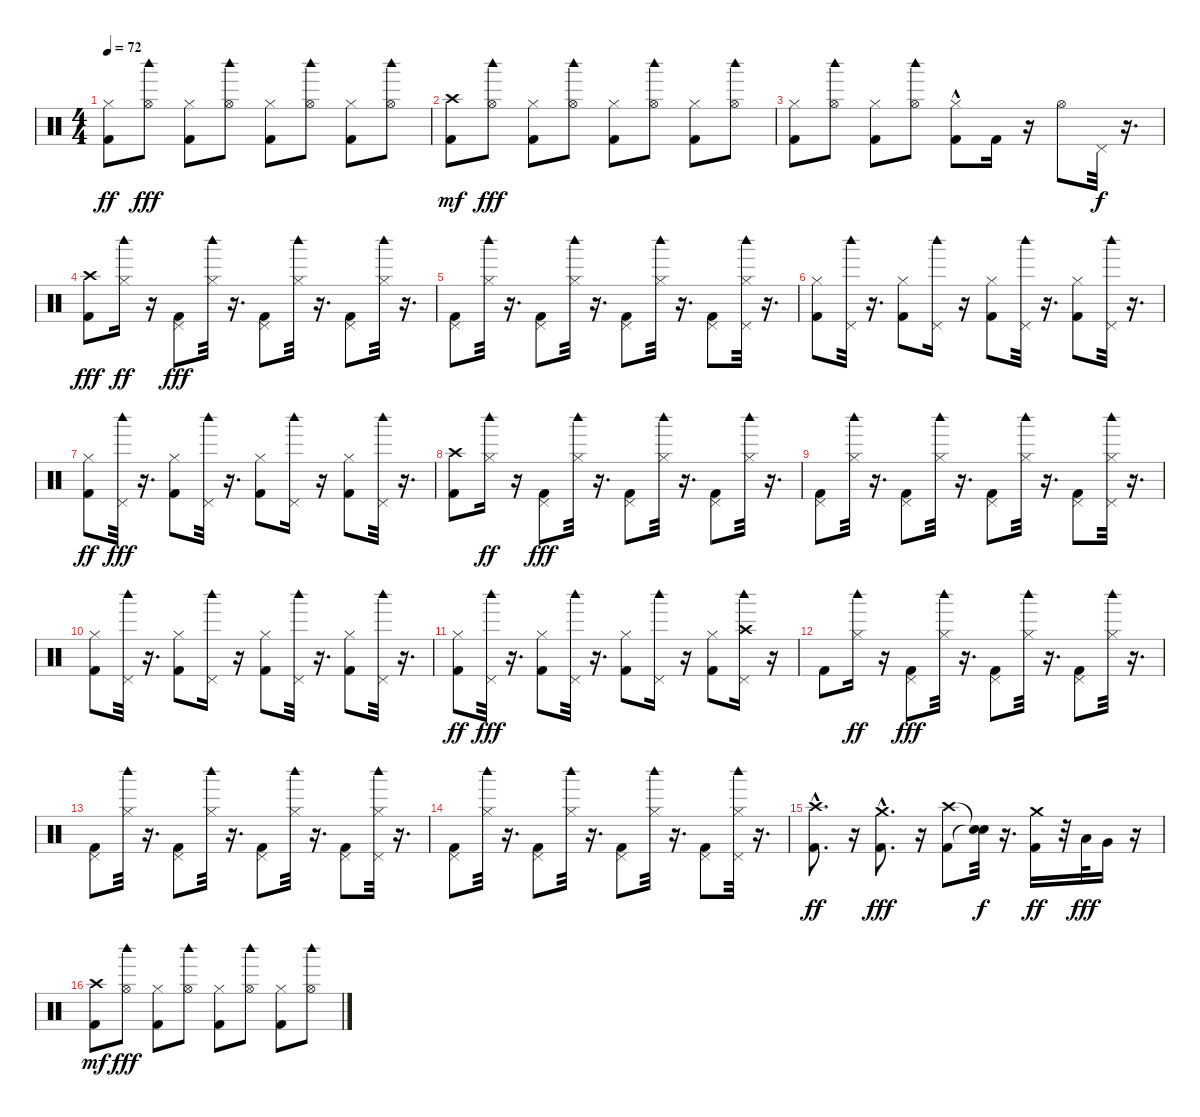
\track "" {instrument percussion}
\staff {score}
\articulation defaults
\ts (4 4)
\tempo 72
\clef neutral
\ks c
("Kick (hit) 2" "Hi-Hat (closed)").8{dy ff} ("Hi-Hat (open)" "Woodblock high (hit)").8{dy fff} ("Hi-Hat (closed)" "Kick (hit) 2").8 ("Hi-Hat (open)" "Woodblock high (hit)").8 ("Hi-Hat (closed)" "Kick (hit) 2").8 ("Hi-Hat (open)" "Woodblock high (hit)").8 ("Hi-Hat (closed)" "Kick (hit) 2").8 ("Hi-Hat (open)" "Woodblock high (hit)").8 |
("Kick (hit) 2" "Crash high (hit)").8{dy mf} ("Hi-Hat (open)" "Woodblock high (hit)").8{dy fff} ("Hi-Hat (closed)" "Kick (hit) 2").8 ("Hi-Hat (open)" "Woodblock high (hit)").8 ("Hi-Hat (closed)" "Kick (hit) 2").8 ("Hi-Hat (open)" "Woodblock high (hit)").8 ("Hi-Hat (closed)" "Kick (hit) 2").8 ("Hi-Hat (open)" "Woodblock high (hit)").8 |
("Hi-Hat (closed)" "Kick (hit) 2").8 ("Hi-Hat (open)" "Woodblock high (hit)").8 ("Hi-Hat (closed)" "Kick (hit) 2").8 ("Hi-Hat (open)" "Woodblock high (hit)").8 ("Hi-Hat (closed)"{hac} "Kick (hit) 2").8 "Kick (hit) 2".16 r.16 "Hi-Hat (open)".8 "Pedal Hi-Hat (hit)".32{dy f} r.16{d} |
("Kick (hit) 2" "Crash high (hit)").8{dy fff} ("Woodblock high (hit)" "Hi-Hat (closed)").16{dy ff} r.16 ("Pedal Hi-Hat (hit)" "Kick (hit) 2").8{dy fff} ("Hi-Hat (closed)" "Woodblock high (hit)").32 r.16{d} ("Pedal Hi-Hat (hit)" "Kick (hit) 2").8 ("Hi-Hat (closed)" "Woodblock high (hit)").32 r.16{d} ("Pedal Hi-Hat (hit)" "Kick (hit) 2").8 ("Hi-Hat (closed)" "Woodblock high (hit)").32 r.16{d} |
("Pedal Hi-Hat (hit)" "Kick (hit) 2").8 ("Hi-Hat (closed)" "Woodblock high (hit)").32 r.16{d} ("Pedal Hi-Hat (hit)" "Kick (hit) 2").8 ("Hi-Hat (closed)" "Woodblock high (hit)").32 r.16{d} ("Pedal Hi-Hat (hit)" "Kick (hit) 2").8 ("Hi-Hat (closed)" "Woodblock high (hit)").32 r.16{d} ("Pedal Hi-Hat (hit)" "Kick (hit) 2").8 ("Hi-Hat (closed)" "Pedal Hi-Hat (hit)" "Woodblock high (hit)").32 r.16{d} |
("Hi-Hat (closed)" "Kick (hit) 2").8 ("Pedal Hi-Hat (hit)" "Woodblock high (hit)").32 r.16{d} ("Hi-Hat (closed)" "Kick (hit) 2").8 ("Pedal Hi-Hat (hit)" "Woodblock high (hit)").16 r.16 ("Hi-Hat (closed)" "Kick (hit) 2").8 ("Pedal Hi-Hat (hit)" "Woodblock high (hit)").32 r.16{d} ("Hi-Hat (closed)" "Kick (hit) 2").8 ("Pedal Hi-Hat (hit)" "Woodblock high (hit)").32 r.16{d} |
("Kick (hit) 2" "Hi-Hat (closed)").8{dy ff} ("Pedal Hi-Hat (hit)" "Woodblock high (hit)").32{dy fff} r.16{d} ("Hi-Hat (closed)" "Kick (hit) 2").8 ("Pedal Hi-Hat (hit)" "Woodblock high (hit)").32 r.16{d} ("Hi-Hat (closed)" "Kick (hit) 2").8 ("Pedal Hi-Hat (hit)" "Woodblock high (hit)").16 r.16 ("Hi-Hat (closed)" "Kick (hit) 2").8 ("Pedal Hi-Hat (hit)" "Woodblock high (hit)").32 r.16{d} |
("Kick (hit) 2" "Crash high (hit)").8 ("Woodblock high (hit)" "Hi-Hat (closed)").16{dy ff} r.16 ("Pedal Hi-Hat (hit)" "Kick (hit) 2").8{dy fff} ("Hi-Hat (closed)" "Woodblock high (hit)").32 r.16{d} ("Pedal Hi-Hat (hit)" "Kick (hit) 2").8 ("Hi-Hat (closed)" "Woodblock high (hit)").32 r.16{d} ("Pedal Hi-Hat (hit)" "Kick (hit) 2").8 ("Hi-Hat (closed)" "Woodblock high (hit)").32 r.16{d} |
("Pedal Hi-Hat (hit)" "Kick (hit) 2").8 ("Hi-Hat (closed)" "Woodblock high (hit)").32 r.16{d} ("Pedal Hi-Hat (hit)" "Kick (hit) 2").8 ("Hi-Hat (closed)" "Woodblock high (hit)").32 r.16{d} ("Pedal Hi-Hat (hit)" "Kick (hit) 2").8 ("Hi-Hat (closed)" "Woodblock high (hit)").32 r.16{d} ("Pedal Hi-Hat (hit)" "Kick (hit) 2").8 ("Hi-Hat (closed)" "Pedal Hi-Hat (hit)" "Woodblock high (hit)").32 r.16{d} |
("Hi-Hat (closed)" "Kick (hit) 2").8 ("Pedal Hi-Hat (hit)" "Woodblock high (hit)").32 r.16{d} ("Hi-Hat (closed)" "Kick (hit) 2").8 ("Pedal Hi-Hat (hit)" "Woodblock high (hit)").16 r.16 ("Hi-Hat (closed)" "Kick (hit) 2").8 ("Pedal Hi-Hat (hit)" "Woodblock high (hit)").32 r.16{d} ("Hi-Hat (closed)" "Kick (hit) 2").8 ("Pedal Hi-Hat (hit)" "Woodblock high (hit)").32 r.16{d} |
("Kick (hit) 2" "Hi-Hat (closed)").8{dy ff} ("Pedal Hi-Hat (hit)" "Woodblock high (hit)").32{dy fff} r.16{d} ("Hi-Hat (closed)" "Kick (hit) 2").8 ("Pedal Hi-Hat (hit)" "Woodblock high (hit)").32 r.16{d} ("Hi-Hat (closed)" "Kick (hit) 2").8 ("Pedal Hi-Hat (hit)" "Woodblock high (hit)").16 r.16 ("Hi-Hat (closed)" "Kick (hit) 2").8 ("Crash high (hit)" "Pedal Hi-Hat (hit)" "Woodblock high (hit)").16 r.16 |
"Kick (hit) 2".8 ("Woodblock high (hit)" "Hi-Hat (closed)").16{dy ff} r.16 ("Pedal Hi-Hat (hit)" "Kick (hit) 2").8{dy fff} ("Hi-Hat (closed)" "Woodblock high (hit)").32 r.16{d} ("Pedal Hi-Hat (hit)" "Kick (hit) 2").8 ("Hi-Hat (closed)" "Woodblock high (hit)").32 r.16{d} ("Pedal Hi-Hat (hit)" "Kick (hit) 2").8 ("Hi-Hat (closed)" "Woodblock high (hit)").32 r.16{d} |
("Pedal Hi-Hat (hit)" "Kick (hit) 2").8 ("Hi-Hat (closed)" "Woodblock high (hit)").32 r.16{d} ("Pedal Hi-Hat (hit)" "Kick (hit) 2").8 ("Hi-Hat (closed)" "Woodblock high (hit)").32 r.16{d} ("Pedal Hi-Hat (hit)" "Kick (hit) 2").8 ("Hi-Hat (closed)" "Woodblock high (hit)").32 r.16{d} ("Pedal Hi-Hat (hit)" "Kick (hit) 2").8 ("Hi-Hat (closed)" "Pedal Hi-Hat (hit)" "Woodblock high (hit)").32 r.16{d} |
("Pedal Hi-Hat (hit)" "Kick (hit) 2").8 ("Hi-Hat (closed)" "Woodblock high (hit)").32 r.16{d} ("Pedal Hi-Hat (hit)" "Kick (hit) 2").8 ("Hi-Hat (closed)" "Woodblock high (hit)").32 r.16{d} ("Pedal Hi-Hat (hit)" "Kick (hit) 2").8 ("Hi-Hat (closed)" "Woodblock high (hit)").32 r.16{d} ("Pedal Hi-Hat (hit)" "Kick (hit) 2").8 ("Hi-Hat (closed)" "Pedal Hi-Hat (hit)" "Woodblock high (hit)").32 r.16{d} |
("Kick (hit) 2"{hac} "Crash high (hit)"{hac}).8{d dy ff} r.16 ("Crash medium (hit)"{hac} "Kick (hit) 2"{hac}).8{d dy fff} r.16 ("Crash high (hit)" "Kick (hit) 2").8 ("Snare (hit)"{t} "Snare (hit)"{t}).32{dy f} r.16{d} ("Crash medium (hit)" "Kick (hit) 2").16{dy ff} r.32 "Low Tom (hit)".32{dy fff} "Very Low Tom (hit)".16 r.16 |
("Kick (hit) 2" "Crash high (hit)").8{dy mf} ("Hi-Hat (open)" "Woodblock high (hit)").8{dy fff} ("Hi-Hat (closed)" "Kick (hit) 2").8 ("Hi-Hat (open)" "Woodblock high (hit)").8 ("Hi-Hat (closed)" "Kick (hit) 2").8 ("Hi-Hat (open)" "Woodblock high (hit)").8 ("Hi-Hat (closed)" "Kick (hit) 2").8 ("Hi-Hat (open)" "Woodblock high (hit)").8
